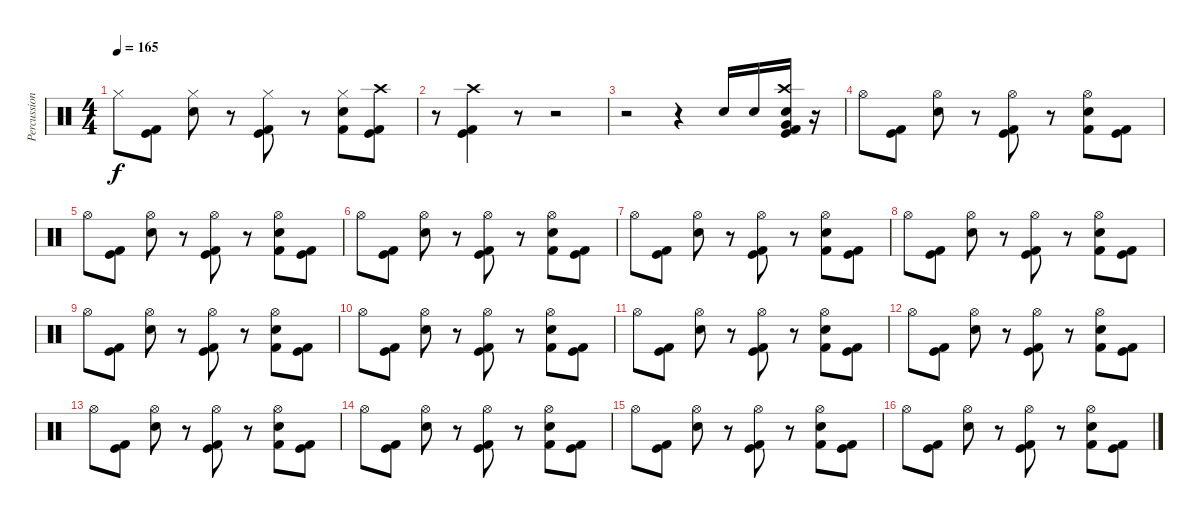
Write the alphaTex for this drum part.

\track ("Percussions" "Percussion") {instrument percussion}
\staff {score}
\articulation defaults
\ts (4 4)
\tempo 165
\clef neutral
\ks c "Hi-Hat (closed)".8{dy f}
("Kick (hit) 2" "Kick (hit)").8 ("Snare (hit) 2" "Hi-Hat (closed)").8 r.8 ("Kick (hit) 2" "Kick (hit)" "Hi-Hat (closed)").8 r.8 ("Kick (hit) 2" "Snare (hit) 2" "Hi-Hat (closed)").8 ("Kick (hit) 2" "Kick (hit)" "Crash high (hit)").8 |
r.8 ("Kick (hit) 2" "Kick (hit)" "Crash high (hit)").4 r.8 r.2 |
r.2 r.4 "Snare (hit) 2".16 "Snare (hit) 2".16 ("Snare (hit) 2" "Kick (hit)" "Kick (hit) 2" "Very Low Tom (hit)" "Crash high (hit)").16 r.16 |
"Hi-Hat (open)".8 ("Kick (hit) 2" "Kick (hit)").8 ("Snare (hit) 2" "Hi-Hat (open)").8 r.8 ("Kick (hit) 2" "Kick (hit)" "Hi-Hat (open)").8 r.8 ("Kick (hit) 2" "Snare (hit) 2" "Hi-Hat (open)").8 ("Kick (hit) 2" "Kick (hit)").8 |
"Hi-Hat (open)".8 ("Kick (hit) 2" "Kick (hit)").8 ("Snare (hit) 2" "Hi-Hat (open)").8 r.8 ("Kick (hit) 2" "Kick (hit)" "Hi-Hat (open)").8 r.8 ("Kick (hit) 2" "Snare (hit) 2" "Hi-Hat (open)").8 ("Kick (hit) 2" "Kick (hit)").8 |
"Hi-Hat (open)".8 ("Kick (hit) 2" "Kick (hit)").8 ("Snare (hit) 2" "Hi-Hat (open)").8 r.8 ("Kick (hit) 2" "Kick (hit)" "Hi-Hat (open)").8 r.8 ("Kick (hit) 2" "Snare (hit) 2" "Hi-Hat (open)").8 ("Kick (hit) 2" "Kick (hit)").8 |
"Hi-Hat (open)".8 ("Kick (hit) 2" "Kick (hit)").8 ("Snare (hit) 2" "Hi-Hat (open)").8 r.8 ("Kick (hit) 2" "Kick (hit)" "Hi-Hat (open)").8 r.8 ("Kick (hit) 2" "Snare (hit) 2" "Hi-Hat (open)").8 ("Kick (hit) 2" "Kick (hit)").8 |
"Hi-Hat (open)".8 ("Kick (hit) 2" "Kick (hit)").8 ("Snare (hit) 2" "Hi-Hat (open)").8 r.8 ("Kick (hit) 2" "Kick (hit)" "Hi-Hat (open)").8 r.8 ("Kick (hit) 2" "Snare (hit) 2" "Hi-Hat (open)").8 ("Kick (hit) 2" "Kick (hit)").8 |
"Hi-Hat (open)".8 ("Kick (hit) 2" "Kick (hit)").8 ("Snare (hit) 2" "Hi-Hat (open)").8 r.8 ("Kick (hit) 2" "Kick (hit)" "Hi-Hat (open)").8 r.8 ("Kick (hit) 2" "Snare (hit) 2" "Hi-Hat (open)").8 ("Kick (hit) 2" "Kick (hit)").8 |
"Hi-Hat (open)".8 ("Kick (hit) 2" "Kick (hit)").8 ("Snare (hit) 2" "Hi-Hat (open)").8 r.8 ("Kick (hit) 2" "Kick (hit)" "Hi-Hat (open)").8 r.8 ("Kick (hit) 2" "Snare (hit) 2" "Hi-Hat (open)").8 ("Kick (hit) 2" "Kick (hit)").8 |
"Hi-Hat (open)".8 ("Kick (hit) 2" "Kick (hit)").8 ("Snare (hit) 2" "Hi-Hat (open)").8 r.8 ("Kick (hit) 2" "Kick (hit)" "Hi-Hat (open)").8 r.8 ("Kick (hit) 2" "Snare (hit) 2" "Hi-Hat (open)").8 ("Kick (hit) 2" "Kick (hit)").8 |
"Hi-Hat (open)".8 ("Kick (hit) 2" "Kick (hit)").8 ("Snare (hit) 2" "Hi-Hat (open)").8 r.8 ("Kick (hit) 2" "Kick (hit)" "Hi-Hat (open)").8 r.8 ("Kick (hit) 2" "Snare (hit) 2" "Hi-Hat (open)").8 ("Kick (hit) 2" "Kick (hit)").8 |
"Hi-Hat (open)".8 ("Kick (hit) 2" "Kick (hit)").8 ("Snare (hit) 2" "Hi-Hat (open)").8 r.8 ("Kick (hit) 2" "Kick (hit)" "Hi-Hat (open)").8 r.8 ("Kick (hit) 2" "Snare (hit) 2" "Hi-Hat (open)").8 ("Kick (hit) 2" "Kick (hit)").8 |
"Hi-Hat (open)".8 ("Kick (hit) 2" "Kick (hit)").8 ("Snare (hit) 2" "Hi-Hat (open)").8 r.8 ("Kick (hit) 2" "Kick (hit)" "Hi-Hat (open)").8 r.8 ("Kick (hit) 2" "Snare (hit) 2" "Hi-Hat (open)").8 ("Kick (hit) 2" "Kick (hit)").8 |
"Hi-Hat (open)".8 ("Kick (hit) 2" "Kick (hit)").8 ("Snare (hit) 2" "Hi-Hat (open)").8 r.8 ("Kick (hit) 2" "Kick (hit)" "Hi-Hat (open)").8 r.8 ("Kick (hit) 2" "Snare (hit) 2" "Hi-Hat (open)").8 ("Kick (hit) 2" "Kick (hit)").8 |
"Hi-Hat (open)".8 ("Kick (hit) 2" "Kick (hit)").8 ("Snare (hit) 2" "Hi-Hat (open)").8 r.8 ("Kick (hit) 2" "Kick (hit)" "Hi-Hat (open)").8 r.8 ("Kick (hit) 2" "Snare (hit) 2" "Hi-Hat (open)").8 ("Kick (hit) 2" "Kick (hit)").8
